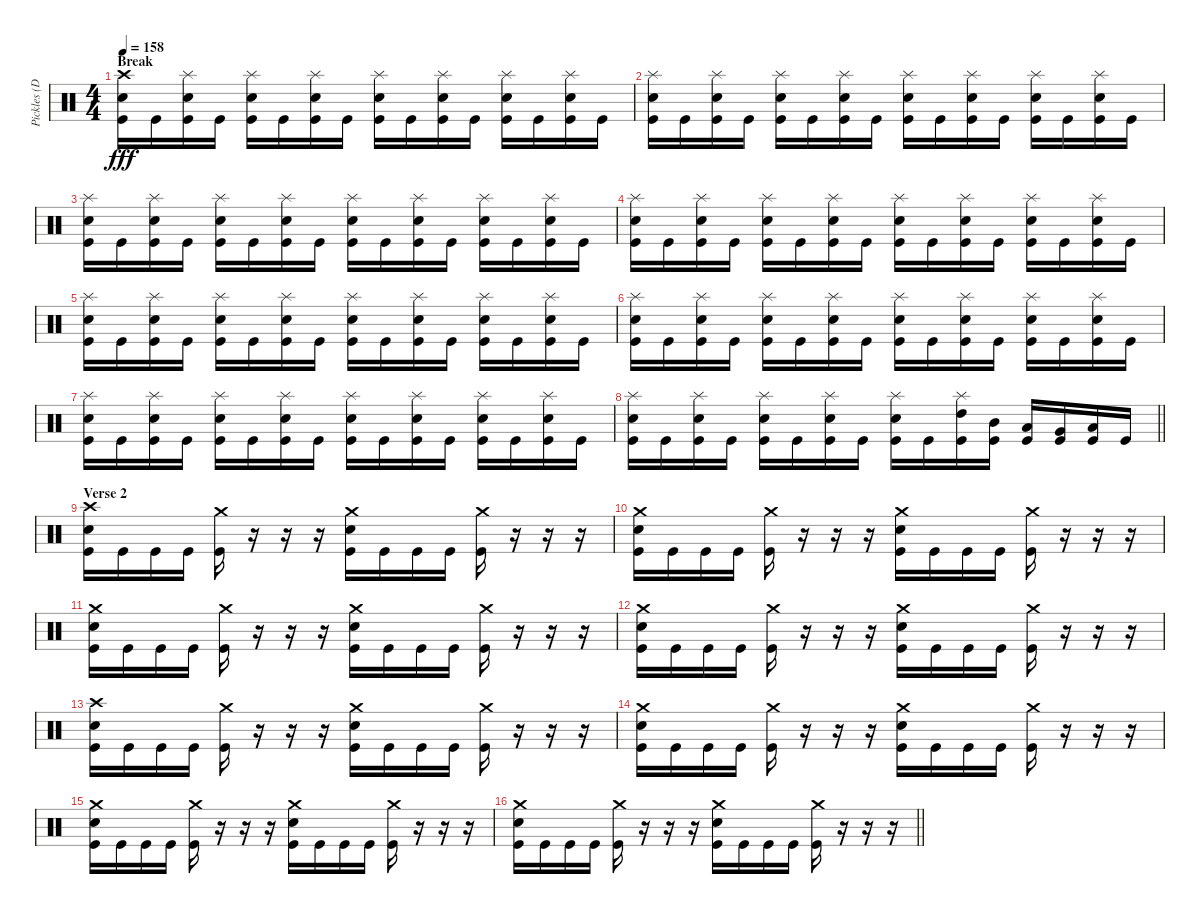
\track ("Pickles (Drums)" "Pickles (D") {instrument percussion}
\staff {score}
\articulation defaults
\ts (4 4)
\section ("" "Break")
\tempo 158
\clef neutral
\ks c
("Crash high (hit)" "Snare (hit) 2" "Kick (hit)").16{dy fff} "Kick (hit)".16 ("Splash (hit)" "Snare (hit) 2" "Kick (hit)").16 "Kick (hit)".16 ("Splash (hit)" "Snare (hit) 2" "Kick (hit)").16 "Kick (hit)".16 ("Splash (hit)" "Snare (hit) 2" "Kick (hit)").16 "Kick (hit)".16 ("Splash (hit)" "Snare (hit) 2" "Kick (hit)").16 "Kick (hit)".16 ("Splash (hit)" "Snare (hit) 2" "Kick (hit)").16 "Kick (hit)".16 ("Splash (hit)" "Snare (hit) 2" "Kick (hit)").16 "Kick (hit)".16 ("Splash (hit)" "Snare (hit) 2" "Kick (hit)").16 "Kick (hit)".16 |
("Splash (hit)" "Snare (hit) 2" "Kick (hit)").16 "Kick (hit)".16 ("Splash (hit)" "Snare (hit) 2" "Kick (hit)").16 "Kick (hit)".16 ("Splash (hit)" "Snare (hit) 2" "Kick (hit)").16 "Kick (hit)".16 ("Splash (hit)" "Snare (hit) 2" "Kick (hit)").16 "Kick (hit)".16 ("Splash (hit)" "Snare (hit) 2" "Kick (hit)").16 "Kick (hit)".16 ("Splash (hit)" "Snare (hit) 2" "Kick (hit)").16 "Kick (hit)".16 ("Splash (hit)" "Snare (hit) 2" "Kick (hit)").16 "Kick (hit)".16 ("Splash (hit)" "Snare (hit) 2" "Kick (hit)").16 "Kick (hit)".16 |
("Splash (hit)" "Snare (hit) 2" "Kick (hit)").16 "Kick (hit)".16 ("Splash (hit)" "Snare (hit) 2" "Kick (hit)").16 "Kick (hit)".16 ("Splash (hit)" "Snare (hit) 2" "Kick (hit)").16 "Kick (hit)".16 ("Splash (hit)" "Snare (hit) 2" "Kick (hit)").16 "Kick (hit)".16 ("Splash (hit)" "Snare (hit) 2" "Kick (hit)").16 "Kick (hit)".16 ("Splash (hit)" "Snare (hit) 2" "Kick (hit)").16 "Kick (hit)".16 ("Splash (hit)" "Snare (hit) 2" "Kick (hit)").16 "Kick (hit)".16 ("Splash (hit)" "Snare (hit) 2" "Kick (hit)").16 "Kick (hit)".16 |
("Splash (hit)" "Snare (hit) 2" "Kick (hit)").16 "Kick (hit)".16 ("Splash (hit)" "Snare (hit) 2" "Kick (hit)").16 "Kick (hit)".16 ("Splash (hit)" "Snare (hit) 2" "Kick (hit)").16 "Kick (hit)".16 ("Splash (hit)" "Snare (hit) 2" "Kick (hit)").16 "Kick (hit)".16 ("Splash (hit)" "Snare (hit) 2" "Kick (hit)").16 "Kick (hit)".16 ("Splash (hit)" "Snare (hit) 2" "Kick (hit)").16 "Kick (hit)".16 ("Splash (hit)" "Snare (hit) 2" "Kick (hit)").16 "Kick (hit)".16 ("Splash (hit)" "Snare (hit) 2" "Kick (hit)").16 "Kick (hit)".16 |
("Splash (hit)" "Snare (hit) 2" "Kick (hit)").16 "Kick (hit)".16 ("Splash (hit)" "Snare (hit) 2" "Kick (hit)").16 "Kick (hit)".16 ("Splash (hit)" "Snare (hit) 2" "Kick (hit)").16 "Kick (hit)".16 ("Splash (hit)" "Snare (hit) 2" "Kick (hit)").16 "Kick (hit)".16 ("Splash (hit)" "Snare (hit) 2" "Kick (hit)").16 "Kick (hit)".16 ("Splash (hit)" "Snare (hit) 2" "Kick (hit)").16 "Kick (hit)".16 ("Splash (hit)" "Snare (hit) 2" "Kick (hit)").16 "Kick (hit)".16 ("Splash (hit)" "Snare (hit) 2" "Kick (hit)").16 "Kick (hit)".16 |
("Splash (hit)" "Snare (hit) 2" "Kick (hit)").16 "Kick (hit)".16 ("Splash (hit)" "Snare (hit) 2" "Kick (hit)").16 "Kick (hit)".16 ("Splash (hit)" "Snare (hit) 2" "Kick (hit)").16 "Kick (hit)".16 ("Splash (hit)" "Snare (hit) 2" "Kick (hit)").16 "Kick (hit)".16 ("Splash (hit)" "Snare (hit) 2" "Kick (hit)").16 "Kick (hit)".16 ("Splash (hit)" "Snare (hit) 2" "Kick (hit)").16 "Kick (hit)".16 ("Splash (hit)" "Snare (hit) 2" "Kick (hit)").16 "Kick (hit)".16 ("Splash (hit)" "Snare (hit) 2" "Kick (hit)").16 "Kick (hit)".16 |
("Splash (hit)" "Snare (hit) 2" "Kick (hit)").16 "Kick (hit)".16 ("Splash (hit)" "Snare (hit) 2" "Kick (hit)").16 "Kick (hit)".16 ("Splash (hit)" "Snare (hit) 2" "Kick (hit)").16 "Kick (hit)".16 ("Splash (hit)" "Snare (hit) 2" "Kick (hit)").16 "Kick (hit)".16 ("Splash (hit)" "Snare (hit) 2" "Kick (hit)").16 "Kick (hit)".16 ("Splash (hit)" "Snare (hit) 2" "Kick (hit)").16 "Kick (hit)".16 ("Splash (hit)" "Snare (hit) 2" "Kick (hit)").16 "Kick (hit)".16 ("Splash (hit)" "Snare (hit) 2" "Kick (hit)").16 "Kick (hit)".16 |
\barLineRight lightlight
("Splash (hit)" "Snare (hit) 2" "Kick (hit)").16 "Kick (hit)".16 ("Splash (hit)" "Snare (hit) 2" "Kick (hit)").16 "Kick (hit)".16 ("Splash (hit)" "Snare (hit) 2" "Kick (hit)").16 "Kick (hit)".16 ("Splash (hit)" "Snare (hit) 2" "Kick (hit)").16 "Kick (hit)".16 ("Splash (hit)" "Snare (hit) 2" "Kick (hit)").16 "Kick (hit)".16 ("Splash (hit)" "High Tom (hit)" "Kick (hit)").16 ("Mid Tom (hit)" "Kick (hit)").16 ("Low Tom (hit)" "Kick (hit)").16 ("Very Low Tom (hit)" "Kick (hit)").16 ("Low Floor Tom (hit)" "Kick (hit)").16 "Kick (hit)".16 |
\section ("" "Verse 2")
("Crash high (hit)" "Snare (hit) 2" "Kick (hit)").16 "Kick (hit)".16 "Kick (hit)".16 "Kick (hit)".16 ("Crash medium (hit)" "Kick (hit)").16 r.16 r.16 r.16 ("Crash medium (hit)" "Snare (hit) 2" "Kick (hit)").16 "Kick (hit)".16 "Kick (hit)".16 "Kick (hit)".16 ("Crash medium (hit)" "Kick (hit)").16 r.16 r.16 r.16 |
("Crash medium (hit)" "Snare (hit) 2" "Kick (hit)").16 "Kick (hit)".16 "Kick (hit)".16 "Kick (hit)".16 ("Crash medium (hit)" "Kick (hit)").16 r.16 r.16 r.16 ("Crash medium (hit)" "Snare (hit) 2" "Kick (hit)").16 "Kick (hit)".16 "Kick (hit)".16 "Kick (hit)".16 ("Crash medium (hit)" "Kick (hit)").16 r.16 r.16 r.16 |
("Crash medium (hit)" "Snare (hit) 2" "Kick (hit)").16 "Kick (hit)".16 "Kick (hit)".16 "Kick (hit)".16 ("Crash medium (hit)" "Kick (hit)").16 r.16 r.16 r.16 ("Crash medium (hit)" "Snare (hit) 2" "Kick (hit)").16 "Kick (hit)".16 "Kick (hit)".16 "Kick (hit)".16 ("Crash medium (hit)" "Kick (hit)").16 r.16 r.16 r.16 |
("Crash medium (hit)" "Snare (hit) 2" "Kick (hit)").16 "Kick (hit)".16 "Kick (hit)".16 "Kick (hit)".16 ("Crash medium (hit)" "Kick (hit)").16 r.16 r.16 r.16 ("Crash medium (hit)" "Snare (hit) 2" "Kick (hit)").16 "Kick (hit)".16 "Kick (hit)".16 "Kick (hit)".16 ("Crash medium (hit)" "Kick (hit)").16 r.16 r.16 r.16 |
("Crash high (hit)" "Snare (hit) 2" "Kick (hit)").16 "Kick (hit)".16 "Kick (hit)".16 "Kick (hit)".16 ("Crash medium (hit)" "Kick (hit)").16 r.16 r.16 r.16 ("Crash medium (hit)" "Snare (hit) 2" "Kick (hit)").16 "Kick (hit)".16 "Kick (hit)".16 "Kick (hit)".16 ("Crash medium (hit)" "Kick (hit)").16 r.16 r.16 r.16 |
("Crash medium (hit)" "Snare (hit) 2" "Kick (hit)").16 "Kick (hit)".16 "Kick (hit)".16 "Kick (hit)".16 ("Crash medium (hit)" "Kick (hit)").16 r.16 r.16 r.16 ("Crash medium (hit)" "Snare (hit) 2" "Kick (hit)").16 "Kick (hit)".16 "Kick (hit)".16 "Kick (hit)".16 ("Crash medium (hit)" "Kick (hit)").16 r.16 r.16 r.16 |
("Crash medium (hit)" "Snare (hit) 2" "Kick (hit)").16 "Kick (hit)".16 "Kick (hit)".16 "Kick (hit)".16 ("Crash medium (hit)" "Kick (hit)").16 r.16 r.16 r.16 ("Crash medium (hit)" "Snare (hit) 2" "Kick (hit)").16 "Kick (hit)".16 "Kick (hit)".16 "Kick (hit)".16 ("Crash medium (hit)" "Kick (hit)").16 r.16 r.16 r.16 |
\barLineRight lightlight
("Crash medium (hit)" "Snare (hit) 2" "Kick (hit)").16 "Kick (hit)".16 "Kick (hit)".16 "Kick (hit)".16 ("Crash medium (hit)" "Kick (hit)").16 r.16 r.16 r.16 ("Crash medium (hit)" "Snare (hit) 2" "Kick (hit)").16 "Kick (hit)".16 "Kick (hit)".16 "Kick (hit)".16 ("Crash medium (hit)" "Kick (hit)").16 r.16 r.16 r.16
